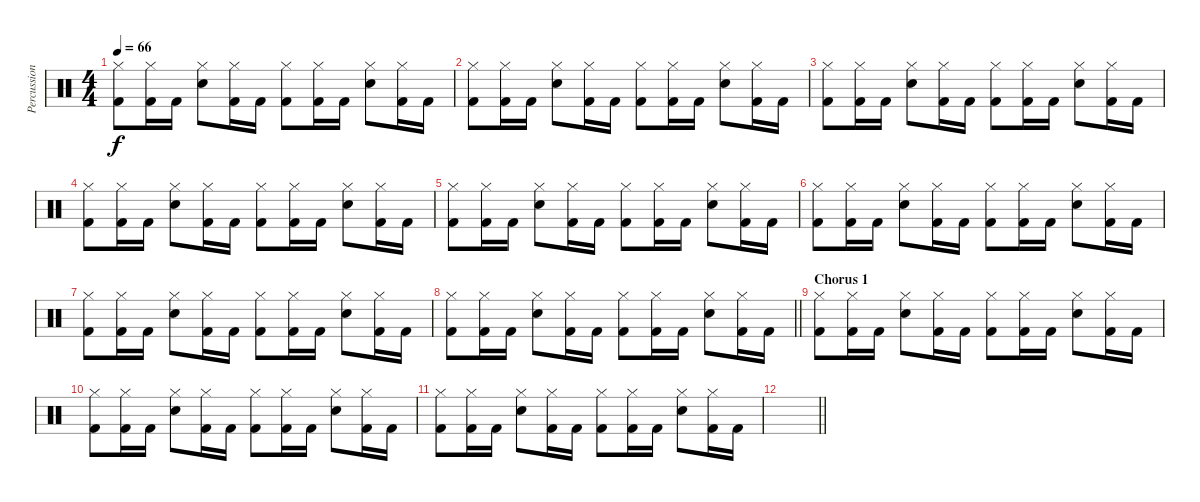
\track ("Percussion" "Percussion") {instrument percussion}
\staff {score}
\articulation defaults
\ts (4 4)
\tempo 66
\clef neutral
\ks c
("Hi-Hat (closed)" "Kick (hit) 2").8{dy f} ("Hi-Hat (closed)" "Kick (hit) 2").16 "Kick (hit) 2".16 ("Hi-Hat (closed)" "Electric Snare (hit)").8 ("Hi-Hat (closed)" "Kick (hit) 2").16 "Kick (hit) 2".16 ("Hi-Hat (closed)" "Kick (hit) 2").8 ("Hi-Hat (closed)" "Kick (hit) 2").16 "Kick (hit) 2".16 ("Hi-Hat (closed)" "Electric Snare (hit)").8 ("Hi-Hat (closed)" "Kick (hit) 2").16 "Kick (hit) 2".16 |
("Hi-Hat (closed)" "Kick (hit) 2").8 ("Hi-Hat (closed)" "Kick (hit) 2").16 "Kick (hit) 2".16 ("Hi-Hat (closed)" "Electric Snare (hit)").8 ("Hi-Hat (closed)" "Kick (hit) 2").16 "Kick (hit) 2".16 ("Hi-Hat (closed)" "Kick (hit) 2").8 ("Hi-Hat (closed)" "Kick (hit) 2").16 "Kick (hit) 2".16 ("Hi-Hat (closed)" "Electric Snare (hit)").8 ("Hi-Hat (closed)" "Kick (hit) 2").16 "Kick (hit) 2".16 |
("Hi-Hat (closed)" "Kick (hit) 2").8 ("Hi-Hat (closed)" "Kick (hit) 2").16 "Kick (hit) 2".16 ("Hi-Hat (closed)" "Electric Snare (hit)").8 ("Hi-Hat (closed)" "Kick (hit) 2").16 "Kick (hit) 2".16 ("Hi-Hat (closed)" "Kick (hit) 2").8 ("Hi-Hat (closed)" "Kick (hit) 2").16 "Kick (hit) 2".16 ("Hi-Hat (closed)" "Electric Snare (hit)").8 ("Hi-Hat (closed)" "Kick (hit) 2").16 "Kick (hit) 2".16 |
("Hi-Hat (closed)" "Kick (hit) 2").8 ("Hi-Hat (closed)" "Kick (hit) 2").16 "Kick (hit) 2".16 ("Hi-Hat (closed)" "Electric Snare (hit)").8 ("Hi-Hat (closed)" "Kick (hit) 2").16 "Kick (hit) 2".16 ("Hi-Hat (closed)" "Kick (hit) 2").8 ("Hi-Hat (closed)" "Kick (hit) 2").16 "Kick (hit) 2".16 ("Hi-Hat (closed)" "Electric Snare (hit)").8 ("Hi-Hat (closed)" "Kick (hit) 2").16 "Kick (hit) 2".16 |
("Hi-Hat (closed)" "Kick (hit) 2").8 ("Hi-Hat (closed)" "Kick (hit) 2").16 "Kick (hit) 2".16 ("Hi-Hat (closed)" "Electric Snare (hit)").8 ("Hi-Hat (closed)" "Kick (hit) 2").16 "Kick (hit) 2".16 ("Hi-Hat (closed)" "Kick (hit) 2").8 ("Hi-Hat (closed)" "Kick (hit) 2").16 "Kick (hit) 2".16 ("Hi-Hat (closed)" "Electric Snare (hit)").8 ("Hi-Hat (closed)" "Kick (hit) 2").16 "Kick (hit) 2".16 |
("Hi-Hat (closed)" "Kick (hit) 2").8 ("Hi-Hat (closed)" "Kick (hit) 2").16 "Kick (hit) 2".16 ("Hi-Hat (closed)" "Electric Snare (hit)").8 ("Hi-Hat (closed)" "Kick (hit) 2").16 "Kick (hit) 2".16 ("Hi-Hat (closed)" "Kick (hit) 2").8 ("Hi-Hat (closed)" "Kick (hit) 2").16 "Kick (hit) 2".16 ("Hi-Hat (closed)" "Electric Snare (hit)").8 ("Hi-Hat (closed)" "Kick (hit) 2").16 "Kick (hit) 2".16 |
("Hi-Hat (closed)" "Kick (hit) 2").8 ("Hi-Hat (closed)" "Kick (hit) 2").16 "Kick (hit) 2".16 ("Hi-Hat (closed)" "Electric Snare (hit)").8 ("Hi-Hat (closed)" "Kick (hit) 2").16 "Kick (hit) 2".16 ("Hi-Hat (closed)" "Kick (hit) 2").8 ("Hi-Hat (closed)" "Kick (hit) 2").16 "Kick (hit) 2".16 ("Hi-Hat (closed)" "Electric Snare (hit)").8 ("Hi-Hat (closed)" "Kick (hit) 2").16 "Kick (hit) 2".16 |
\barLineRight lightlight
("Hi-Hat (closed)" "Kick (hit) 2").8 ("Hi-Hat (closed)" "Kick (hit) 2").16 "Kick (hit) 2".16 ("Hi-Hat (closed)" "Electric Snare (hit)").8 ("Hi-Hat (closed)" "Kick (hit) 2").16 "Kick (hit) 2".16 ("Hi-Hat (closed)" "Kick (hit) 2").8 ("Hi-Hat (closed)" "Kick (hit) 2").16 "Kick (hit) 2".16 ("Hi-Hat (closed)" "Electric Snare (hit)").8 ("Hi-Hat (closed)" "Kick (hit) 2").16 "Kick (hit) 2".16 |
\section ("" "Chorus 1")
("Hi-Hat (closed)" "Kick (hit) 2").8 ("Hi-Hat (closed)" "Kick (hit) 2").16 "Kick (hit) 2".16 ("Hi-Hat (closed)" "Electric Snare (hit)").8 ("Hi-Hat (closed)" "Kick (hit) 2").16 "Kick (hit) 2".16 ("Hi-Hat (closed)" "Kick (hit) 2").8 ("Hi-Hat (closed)" "Kick (hit) 2").16 "Kick (hit) 2".16 ("Hi-Hat (closed)" "Electric Snare (hit)").8 ("Hi-Hat (closed)" "Kick (hit) 2").16 "Kick (hit) 2".16 |
("Hi-Hat (closed)" "Kick (hit) 2").8 ("Hi-Hat (closed)" "Kick (hit) 2").16 "Kick (hit) 2".16 ("Hi-Hat (closed)" "Electric Snare (hit)").8 ("Hi-Hat (closed)" "Kick (hit) 2").16 "Kick (hit) 2".16 ("Hi-Hat (closed)" "Kick (hit) 2").8 ("Hi-Hat (closed)" "Kick (hit) 2").16 "Kick (hit) 2".16 ("Hi-Hat (closed)" "Electric Snare (hit)").8 ("Hi-Hat (closed)" "Kick (hit) 2").16 "Kick (hit) 2".16 |
("Hi-Hat (closed)" "Kick (hit) 2").8 ("Hi-Hat (closed)" "Kick (hit) 2").16 "Kick (hit) 2".16 ("Hi-Hat (closed)" "Electric Snare (hit)").8 ("Hi-Hat (closed)" "Kick (hit) 2").16 "Kick (hit) 2".16 ("Hi-Hat (closed)" "Kick (hit) 2").8 ("Hi-Hat (closed)" "Kick (hit) 2").16 "Kick (hit) 2".16 ("Hi-Hat (closed)" "Electric Snare (hit)").8 ("Hi-Hat (closed)" "Kick (hit) 2").16 "Kick (hit) 2".16 |
\barLineRight lightlight
